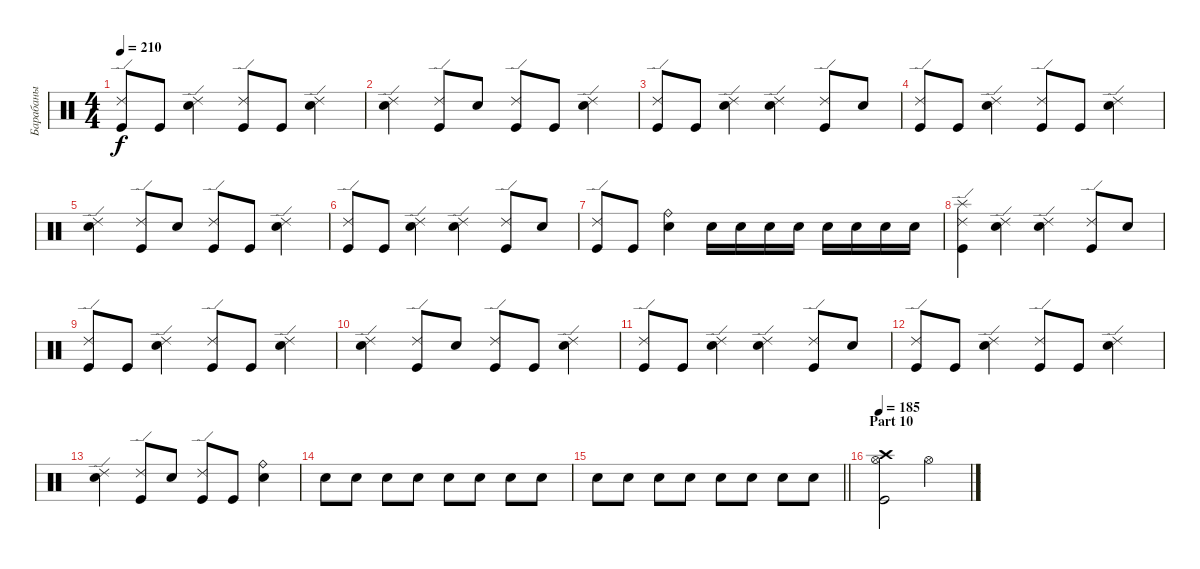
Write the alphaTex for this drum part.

\track ("Барабаны" "Барабаны") {instrument percussion}
\staff {score}
\articulation defaults
\ts (4 4)
\tempo 210
\clef neutral
\ks c
("Ride (edge) 2" "Kick (hit)").8{dy f} "Kick (hit)".8 ("Ride (edge) 2" "Electric Snare (hit)").4 ("Ride (edge) 2" "Kick (hit)").8 "Kick (hit)".8 ("Ride (edge) 2" "Electric Snare (hit)").4 |
("Ride (edge) 2" "Electric Snare (hit)").4 ("Ride (edge) 2" "Kick (hit)").8 "Electric Snare (hit)".8 ("Ride (edge) 2" "Kick (hit)").8 "Kick (hit)".8 ("Ride (edge) 2" "Electric Snare (hit)").4 |
("Ride (edge) 2" "Kick (hit)").8 "Kick (hit)".8 ("Ride (edge) 2" "Electric Snare (hit)").4 ("Ride (edge) 2" "Electric Snare (hit)").4 ("Ride (edge) 2" "Kick (hit)").8 "Electric Snare (hit)".8 |
("Ride (edge) 2" "Kick (hit)").8 "Kick (hit)".8 ("Ride (edge) 2" "Electric Snare (hit)").4 ("Ride (edge) 2" "Kick (hit)").8 "Kick (hit)".8 ("Ride (edge) 2" "Electric Snare (hit)").4 |
("Ride (edge) 2" "Electric Snare (hit)").4 ("Ride (edge) 2" "Kick (hit)").8 "Electric Snare (hit)".8 ("Ride (edge) 2" "Kick (hit)").8 "Kick (hit)".8 ("Ride (edge) 2" "Electric Snare (hit)").4 |
("Ride (edge) 2" "Kick (hit)").8 "Kick (hit)".8 ("Ride (edge) 2" "Electric Snare (hit)").4 ("Ride (edge) 2" "Electric Snare (hit)").4 ("Ride (edge) 2" "Kick (hit)").8 "Electric Snare (hit)".8 |
("Ride (edge) 2" "Kick (hit)").8 "Kick (hit)".8 ("Ride (bell)" "Electric Snare (hit)").4 "Electric Snare (hit)".16 "Electric Snare (hit)".16 "Electric Snare (hit)".16 "Electric Snare (hit)".16 "Electric Snare (hit)".16 "Electric Snare (hit)".16 "Electric Snare (hit)".16 "Electric Snare (hit)".16 |
("Ride (edge) 2" "Splash (hit)" "Kick (hit)").4 ("Ride (edge) 2" "Electric Snare (hit)").4 ("Ride (edge) 2" "Electric Snare (hit)").4 ("Ride (edge) 2" "Kick (hit)").8 "Electric Snare (hit)".8 |
("Ride (edge) 2" "Kick (hit)").8 "Kick (hit)".8 ("Ride (edge) 2" "Electric Snare (hit)").4 ("Ride (edge) 2" "Kick (hit)").8 "Kick (hit)".8 ("Ride (edge) 2" "Electric Snare (hit)").4 |
("Ride (edge) 2" "Electric Snare (hit)").4 ("Ride (edge) 2" "Kick (hit)").8 "Electric Snare (hit)".8 ("Ride (edge) 2" "Kick (hit)").8 "Kick (hit)".8 ("Ride (edge) 2" "Electric Snare (hit)").4 |
("Ride (edge) 2" "Kick (hit)").8 "Kick (hit)".8 ("Ride (edge) 2" "Electric Snare (hit)").4 ("Ride (edge) 2" "Electric Snare (hit)").4 ("Ride (edge) 2" "Kick (hit)").8 "Electric Snare (hit)".8 |
("Ride (edge) 2" "Kick (hit)").8 "Kick (hit)".8 ("Ride (edge) 2" "Electric Snare (hit)").4 ("Ride (edge) 2" "Kick (hit)").8 "Kick (hit)".8 ("Ride (edge) 2" "Electric Snare (hit)").4 |
("Ride (edge) 2" "Electric Snare (hit)").4 ("Ride (edge) 2" "Kick (hit)").8 "Electric Snare (hit)".8 ("Ride (edge) 2" "Kick (hit)").8 "Kick (hit)".8 ("Ride (bell)" "Electric Snare (hit)").4 |
"Electric Snare (hit)".8 "Electric Snare (hit)".8 "Electric Snare (hit)".8 "Electric Snare (hit)".8 "Electric Snare (hit)".8 "Electric Snare (hit)".8 "Electric Snare (hit)".8 "Electric Snare (hit)".8 |
\barLineRight lightlight "Electric Snare (hit)".8 "Electric Snare (hit)".8 "Electric Snare (hit)".8 "Electric Snare (hit)".8 "Electric Snare (hit)".8 "Electric Snare (hit)".8 "Electric Snare (hit)".8 "Electric Snare (hit)".8
|
\section ("" "Part 10")
\tempo 185
("Hi-Hat (open)" "Crash high (hit)" "Kick (hit)").2 "Hi-Hat (open)".2
